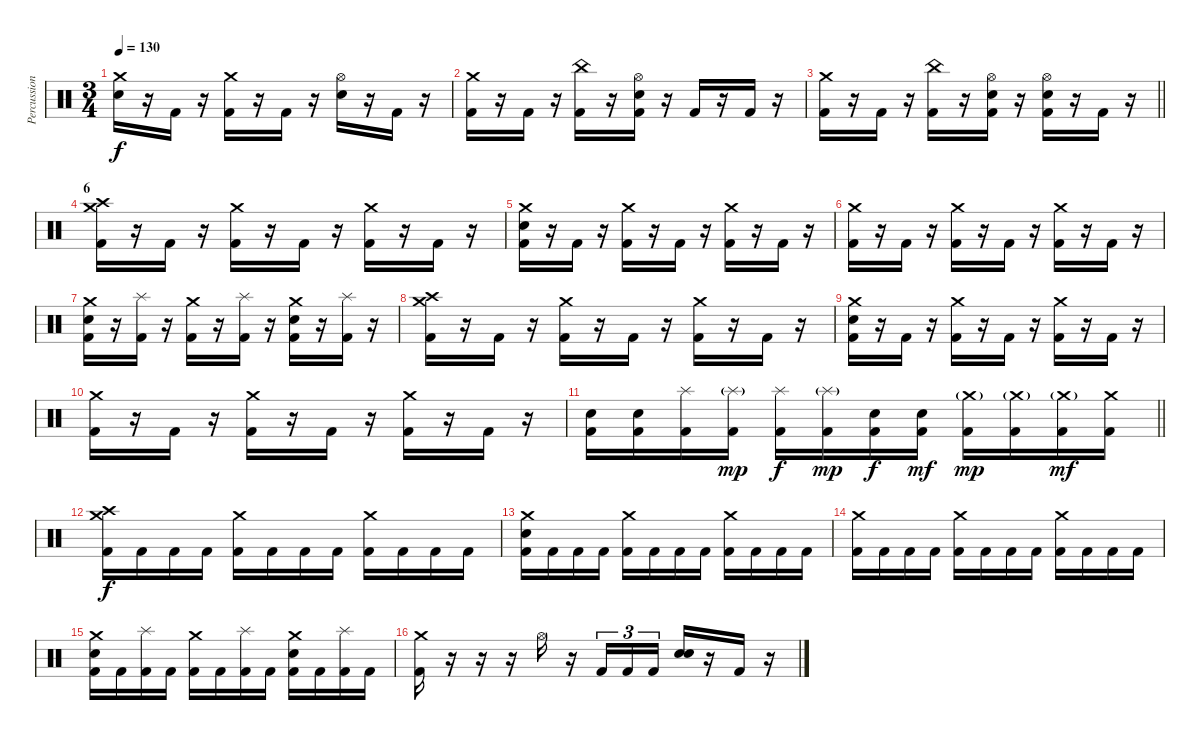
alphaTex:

\track ("Percussion" "Percussion") {instrument percussion}
\staff {score}
\articulation defaults
\ts (3 4)
\tempo 130
\clef neutral
\ks c
("Crash medium (hit)" "Snare (hit) 2").16{dy f} r.16 "Kick (hit) 2".16 r.16 ("Crash medium (hit)" "Kick (hit) 2").16 r.16 "Kick (hit) 2".16 r.16 ("Hi-Hat (open)" "Snare (hit) 2").16 r.16 "Kick (hit) 2".16 r.16 |
("Crash medium (hit)" "Kick (hit) 2").16 r.16 "Kick (hit) 2".16 r.16 ("China (hit)" "Kick (hit) 2").16 r.16 ("Hi-Hat (open)" "Snare (hit) 2" "Kick (hit) 2").16 r.16 "Kick (hit) 2".16 r.16 "Kick (hit) 2".16 r.16 |
\barLineRight lightlight
("Crash medium (hit)" "Kick (hit) 2").16 r.16 "Kick (hit) 2".16 r.16 ("China (hit)" "Kick (hit) 2").16 r.16 ("Hi-Hat (open)" "Snare (hit) 2" "Kick (hit) 2").16 r.16 ("Hi-Hat (open)" "Snare (hit) 2" "Kick (hit) 2").16 r.16 "Kick (hit) 2".16 r.16 |
\section ("" "6")
("Crash medium (hit)" "Crash high (hit)" "Kick (hit) 2").16 r.16 "Kick (hit) 2".16 r.16 ("Crash medium (hit)" "Kick (hit) 2").16 r.16 "Kick (hit) 2".16 r.16 ("Crash medium (hit)" "Kick (hit) 2").16 r.16 "Kick (hit) 2".16 r.16 |
("Crash medium (hit)" "Snare (hit) 2" "Kick (hit) 2").16 r.16 "Kick (hit) 2".16 r.16 ("Crash medium (hit)" "Kick (hit) 2").16 r.16 "Kick (hit) 2".16 r.16 ("Crash medium (hit)" "Kick (hit) 2").16 r.16 "Kick (hit) 2".16 r.16 |
("Crash medium (hit)" "Kick (hit) 2").16 r.16 "Kick (hit) 2".16 r.16 ("Crash medium (hit)" "Kick (hit) 2").16 r.16 "Kick (hit) 2".16 r.16 ("Crash medium (hit)" "Kick (hit) 2").16 r.16 "Kick (hit) 2".16 r.16 |
("Crash medium (hit)" "Snare (hit) 2" "Kick (hit) 2").16 r.16 ("Splash (hit)" "Kick (hit) 2").16 r.16 ("Crash medium (hit)" "Kick (hit) 2").16 r.16 ("Splash (hit)" "Kick (hit) 2").16 r.16 ("Crash medium (hit)" "Snare (hit) 2" "Kick (hit) 2").16 r.16 ("Splash (hit)" "Kick (hit) 2").16 r.16 |
("Crash medium (hit)" "Crash high (hit)" "Kick (hit) 2").16 r.16 "Kick (hit) 2".16 r.16 ("Crash medium (hit)" "Kick (hit) 2").16 r.16 "Kick (hit) 2".16 r.16 ("Crash medium (hit)" "Kick (hit) 2").16 r.16 "Kick (hit) 2".16 r.16 |
("Crash medium (hit)" "Snare (hit) 2" "Kick (hit) 2").16 r.16 "Kick (hit) 2".16 r.16 ("Crash medium (hit)" "Kick (hit) 2").16 r.16 "Kick (hit) 2".16 r.16 ("Crash medium (hit)" "Kick (hit) 2").16 r.16 "Kick (hit) 2".16 r.16 |
("Crash medium (hit)" "Kick (hit) 2").16 r.16 "Kick (hit) 2".16 r.16 ("Crash medium (hit)" "Kick (hit) 2").16 r.16 "Kick (hit) 2".16 r.16 ("Crash medium (hit)" "Kick (hit) 2").16 r.16 "Kick (hit) 2".16 r.16 |
\barLineRight lightlight
("Snare (hit) 2" "Kick (hit) 2").16 ("Snare (hit) 2" "Kick (hit) 2").16 ("Splash (hit)" "Kick (hit) 2").16 ("Splash (hit)"{g} "Kick (hit) 2").16{dy mp} ("Splash (hit)" "Kick (hit) 2").16{dy f} ("Splash (hit)"{g} "Kick (hit) 2").16{dy mp} ("Snare (hit) 2" "Kick (hit) 2").16{dy f} ("Snare (hit) 2" "Kick (hit) 2").16{dy mf} ("Crash medium (hit)"{g} "Kick (hit) 2").16{dy mp} ("Crash medium (hit)"{g} "Kick (hit) 2").16 ("Crash medium (hit)"{g} "Kick (hit) 2").16{dy mf} ("Crash medium (hit)" "Kick (hit) 2").16 |
\section ("" "")
("Crash medium (hit)" "Crash high (hit)" "Kick (hit) 2").16{dy f} "Kick (hit) 2".16 "Kick (hit) 2".16 "Kick (hit) 2".16 ("Crash medium (hit)" "Kick (hit) 2").16 "Kick (hit) 2".16 "Kick (hit) 2".16 "Kick (hit) 2".16 ("Crash medium (hit)" "Kick (hit) 2").16 "Kick (hit) 2".16 "Kick (hit) 2".16 "Kick (hit) 2".16 |
("Crash medium (hit)" "Snare (hit) 2" "Kick (hit) 2").16 "Kick (hit) 2".16 "Kick (hit) 2".16 "Kick (hit) 2".16 ("Crash medium (hit)" "Kick (hit) 2").16 "Kick (hit) 2".16 "Kick (hit) 2".16 "Kick (hit) 2".16 ("Crash medium (hit)" "Kick (hit) 2").16 "Kick (hit) 2".16 "Kick (hit) 2".16 "Kick (hit) 2".16 |
("Crash medium (hit)" "Kick (hit) 2").16 "Kick (hit) 2".16 "Kick (hit) 2".16 "Kick (hit) 2".16 ("Crash medium (hit)" "Kick (hit) 2").16 "Kick (hit) 2".16 "Kick (hit) 2".16 "Kick (hit) 2".16 ("Crash medium (hit)" "Kick (hit) 2").16 "Kick (hit) 2".16 "Kick (hit) 2".16 "Kick (hit) 2".16 |
("Crash medium (hit)" "Snare (hit) 2" "Kick (hit) 2").16 "Kick (hit) 2".16 ("Splash (hit)" "Kick (hit) 2").16 "Kick (hit) 2".16 ("Crash medium (hit)" "Kick (hit) 2").16 "Kick (hit) 2".16 ("Splash (hit)" "Kick (hit) 2").16 "Kick (hit) 2".16 ("Crash medium (hit)" "Snare (hit) 2" "Kick (hit) 2").16 "Kick (hit) 2".16 ("Splash (hit)" "Kick (hit) 2").16 "Kick (hit) 2".16 |
("Crash medium (hit)" "Kick (hit) 2").16 r.16 r.16 r.16 "Hi-Hat (open)".16 r.16 "Kick (hit) 2".16{tu (3 2)} "Kick (hit) 2".16{tu (3 2)} "Kick (hit) 2".16{tu (3 2)} ("Snare (hit) 2" "Snare (hit) 2").16{bu 60} r.16 "Kick (hit) 2".16 r.16
